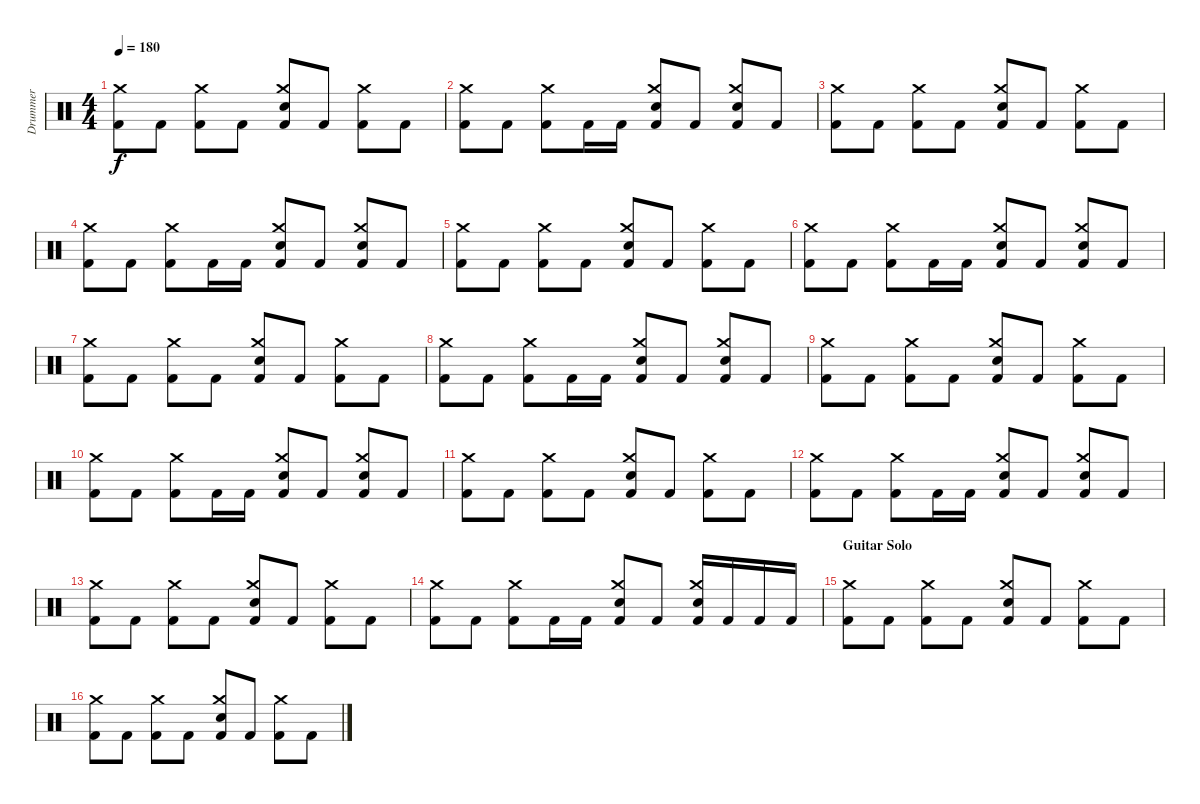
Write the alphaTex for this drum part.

\track ("Drummer" "Drummer") {instrument percussion}
\staff {score}
\articulation defaults
\ts (4 4)
\tempo 180
\clef neutral
\ks c
("Kick (hit) 2" "Crash medium (hit)").8{dy f} "Kick (hit) 2".8 ("Kick (hit) 2" "Crash medium (hit)").8 "Kick (hit) 2".8 ("Kick (hit) 2" "Snare (hit) 2" "Crash medium (hit)").8 "Kick (hit) 2".8 ("Kick (hit) 2" "Crash medium (hit)").8 "Kick (hit) 2".8 |
("Kick (hit) 2" "Crash medium (hit)").8 "Kick (hit) 2".8 ("Kick (hit) 2" "Crash medium (hit)").8 "Kick (hit) 2".16 "Kick (hit) 2".16 ("Kick (hit) 2" "Snare (hit) 2" "Crash medium (hit)").8 "Kick (hit) 2".8 ("Kick (hit) 2" "Snare (hit) 2" "Crash medium (hit)").8 "Kick (hit) 2".8 |
("Kick (hit) 2" "Crash medium (hit)").8 "Kick (hit) 2".8 ("Kick (hit) 2" "Crash medium (hit)").8 "Kick (hit) 2".8 ("Kick (hit) 2" "Snare (hit) 2" "Crash medium (hit)").8 "Kick (hit) 2".8 ("Kick (hit) 2" "Crash medium (hit)").8 "Kick (hit) 2".8 |
("Kick (hit) 2" "Crash medium (hit)").8 "Kick (hit) 2".8 ("Kick (hit) 2" "Crash medium (hit)").8 "Kick (hit) 2".16 "Kick (hit) 2".16 ("Kick (hit) 2" "Snare (hit) 2" "Crash medium (hit)").8 "Kick (hit) 2".8 ("Kick (hit) 2" "Snare (hit) 2" "Crash medium (hit)").8 "Kick (hit) 2".8 |
("Kick (hit) 2" "Crash medium (hit)").8 "Kick (hit) 2".8 ("Kick (hit) 2" "Crash medium (hit)").8 "Kick (hit) 2".8 ("Kick (hit) 2" "Snare (hit) 2" "Crash medium (hit)").8 "Kick (hit) 2".8 ("Kick (hit) 2" "Crash medium (hit)").8 "Kick (hit) 2".8 |
("Kick (hit) 2" "Crash medium (hit)").8 "Kick (hit) 2".8 ("Kick (hit) 2" "Crash medium (hit)").8 "Kick (hit) 2".16 "Kick (hit) 2".16 ("Kick (hit) 2" "Snare (hit) 2" "Crash medium (hit)").8 "Kick (hit) 2".8 ("Kick (hit) 2" "Snare (hit) 2" "Crash medium (hit)").8 "Kick (hit) 2".8 |
("Kick (hit) 2" "Crash medium (hit)").8 "Kick (hit) 2".8 ("Kick (hit) 2" "Crash medium (hit)").8 "Kick (hit) 2".8 ("Kick (hit) 2" "Snare (hit) 2" "Crash medium (hit)").8 "Kick (hit) 2".8 ("Kick (hit) 2" "Crash medium (hit)").8 "Kick (hit) 2".8 |
("Kick (hit) 2" "Crash medium (hit)").8 "Kick (hit) 2".8 ("Kick (hit) 2" "Crash medium (hit)").8 "Kick (hit) 2".16 "Kick (hit) 2".16 ("Kick (hit) 2" "Snare (hit) 2" "Crash medium (hit)").8 "Kick (hit) 2".8 ("Kick (hit) 2" "Snare (hit) 2" "Crash medium (hit)").8 "Kick (hit) 2".8 |
("Kick (hit) 2" "Crash medium (hit)").8 "Kick (hit) 2".8 ("Kick (hit) 2" "Crash medium (hit)").8 "Kick (hit) 2".8 ("Kick (hit) 2" "Snare (hit) 2" "Crash medium (hit)").8 "Kick (hit) 2".8 ("Kick (hit) 2" "Crash medium (hit)").8 "Kick (hit) 2".8 |
("Kick (hit) 2" "Crash medium (hit)").8 "Kick (hit) 2".8 ("Kick (hit) 2" "Crash medium (hit)").8 "Kick (hit) 2".16 "Kick (hit) 2".16 ("Kick (hit) 2" "Snare (hit) 2" "Crash medium (hit)").8 "Kick (hit) 2".8 ("Kick (hit) 2" "Snare (hit) 2" "Crash medium (hit)").8 "Kick (hit) 2".8 |
("Kick (hit) 2" "Crash medium (hit)").8 "Kick (hit) 2".8 ("Kick (hit) 2" "Crash medium (hit)").8 "Kick (hit) 2".8 ("Kick (hit) 2" "Snare (hit) 2" "Crash medium (hit)").8 "Kick (hit) 2".8 ("Kick (hit) 2" "Crash medium (hit)").8 "Kick (hit) 2".8 |
("Kick (hit) 2" "Crash medium (hit)").8 "Kick (hit) 2".8 ("Kick (hit) 2" "Crash medium (hit)").8 "Kick (hit) 2".16 "Kick (hit) 2".16 ("Kick (hit) 2" "Snare (hit) 2" "Crash medium (hit)").8 "Kick (hit) 2".8 ("Kick (hit) 2" "Snare (hit) 2" "Crash medium (hit)").8 "Kick (hit) 2".8 |
("Kick (hit) 2" "Crash medium (hit)").8 "Kick (hit) 2".8 ("Kick (hit) 2" "Crash medium (hit)").8 "Kick (hit) 2".8 ("Kick (hit) 2" "Snare (hit) 2" "Crash medium (hit)").8 "Kick (hit) 2".8 ("Kick (hit) 2" "Crash medium (hit)").8 "Kick (hit) 2".8 |
("Kick (hit) 2" "Crash medium (hit)").8 "Kick (hit) 2".8 ("Kick (hit) 2" "Crash medium (hit)").8 "Kick (hit) 2".16 "Kick (hit) 2".16 ("Kick (hit) 2" "Snare (hit) 2" "Crash medium (hit)").8 "Kick (hit) 2".8 ("Kick (hit) 2" "Snare (hit) 2" "Crash medium (hit)").16 "Kick (hit) 2".16 "Kick (hit) 2".16 "Kick (hit) 2".16 |
\section ("" "Guitar Solo")
("Kick (hit) 2" "Crash medium (hit)").8 "Kick (hit) 2".8 ("Kick (hit) 2" "Crash medium (hit)").8 "Kick (hit) 2".8 ("Kick (hit) 2" "Snare (hit) 2" "Crash medium (hit)").8 "Kick (hit) 2".8 ("Kick (hit) 2" "Crash medium (hit)").8 "Kick (hit) 2".8 |
("Kick (hit) 2" "Crash medium (hit)").8 "Kick (hit) 2".8 ("Kick (hit) 2" "Crash medium (hit)").8 "Kick (hit) 2".8 ("Kick (hit) 2" "Snare (hit) 2" "Crash medium (hit)").8 "Kick (hit) 2".8 ("Kick (hit) 2" "Crash medium (hit)").8 "Kick (hit) 2".8
